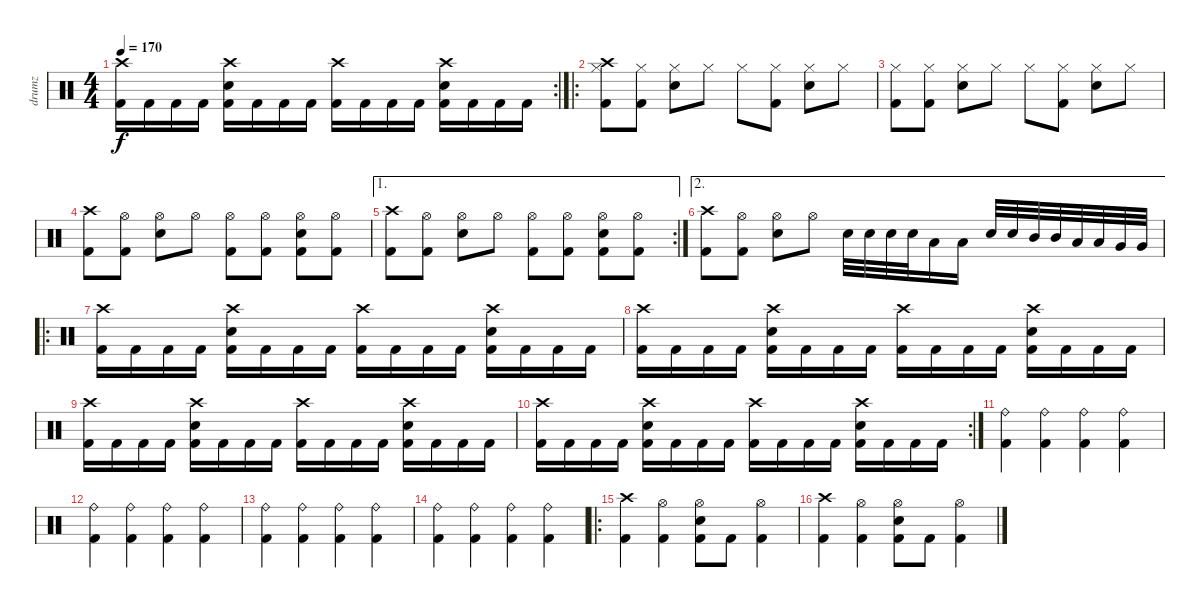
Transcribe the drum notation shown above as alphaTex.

\track ("drumz" "drumz") {instrument percussion}
\staff {score}
\articulation defaults
\rc 2
\ts (4 4)
\tempo 170
\clef neutral
\ks c
("Crash high (hit)" "Kick (hit) 2").16{dy f} "Kick (hit) 2".16 "Kick (hit) 2".16 "Kick (hit) 2".16 ("Crash high (hit)" "Electric Snare (hit)" "Kick (hit) 2").16 "Kick (hit) 2".16 "Kick (hit) 2".16 "Kick (hit) 2".16 ("Crash high (hit)" "Kick (hit) 2").16 "Kick (hit) 2".16 "Kick (hit) 2".16 "Kick (hit) 2".16 ("Crash high (hit)" "Electric Snare (hit)" "Kick (hit) 2").16 "Kick (hit) 2".16 "Kick (hit) 2".16 "Kick (hit) 2".16 |
\ro
("Crash high (hit)" "Hi-Hat (closed)" "Kick (hit) 2").8 ("Hi-Hat (closed)" "Kick (hit) 2").8 ("Hi-Hat (closed)" "Electric Snare (hit)").8 "Hi-Hat (closed)".8 "Hi-Hat (closed)".8 ("Hi-Hat (closed)" "Kick (hit) 2").8 ("Hi-Hat (closed)" "Electric Snare (hit)").8 "Hi-Hat (closed)".8 |
("Hi-Hat (closed)" "Kick (hit) 2").8 ("Hi-Hat (closed)" "Kick (hit) 2").8 ("Hi-Hat (closed)" "Electric Snare (hit)").8 "Hi-Hat (closed)".8 "Hi-Hat (closed)".8 ("Hi-Hat (closed)" "Kick (hit) 2").8 ("Hi-Hat (closed)" "Electric Snare (hit)").8 "Hi-Hat (closed)".8 |
("Crash high (hit)" "Kick (hit) 2").8 ("Hi-Hat (open)" "Kick (hit) 2").8 ("Hi-Hat (open)" "Electric Snare (hit)").8 "Hi-Hat (open)".8 ("Hi-Hat (open)" "Kick (hit) 2").8 ("Hi-Hat (open)" "Kick (hit) 2").8 ("Hi-Hat (open)" "Electric Snare (hit)" "Kick (hit) 2").8 ("Hi-Hat (open)" "Kick (hit) 2").8 |
\ae 1
\rc 2
("Crash high (hit)" "Kick (hit) 2").8 ("Hi-Hat (open)" "Kick (hit) 2").8 ("Hi-Hat (open)" "Electric Snare (hit)").8 "Hi-Hat (open)".8 ("Hi-Hat (open)" "Kick (hit) 2").8 ("Hi-Hat (open)" "Kick (hit) 2").8 ("Hi-Hat (open)" "Electric Snare (hit)" "Kick (hit) 2").8 ("Hi-Hat (open)" "Kick (hit) 2").8 |
\ae 2
("Crash high (hit)" "Kick (hit) 2").8 ("Hi-Hat (open)" "Kick (hit) 2").8 ("Hi-Hat (open)" "Electric Snare (hit)").8 "Hi-Hat (open)".8 "Electric Snare (hit)".32 "Electric Snare (hit)".32 "Electric Snare (hit)".32 "Electric Snare (hit)".32 "Low Tom (hit)".16 "Low Tom (hit)".16 "Electric Snare (hit)".32 "Electric Snare (hit)".32 "Mid Tom (hit)".32 "Mid Tom (hit)".32 "Low Tom (hit)".32 "Low Tom (hit)".32 "Very Low Tom (hit)".32 "Very Low Tom (hit)".32 |
\ro
("Crash high (hit)" "Kick (hit) 2").16 "Kick (hit) 2".16 "Kick (hit) 2".16 "Kick (hit) 2".16 ("Crash high (hit)" "Electric Snare (hit)" "Kick (hit) 2").16 "Kick (hit) 2".16 "Kick (hit) 2".16 "Kick (hit) 2".16 ("Crash high (hit)" "Kick (hit) 2").16 "Kick (hit) 2".16 "Kick (hit) 2".16 "Kick (hit) 2".16 ("Crash high (hit)" "Electric Snare (hit)" "Kick (hit) 2").16 "Kick (hit) 2".16 "Kick (hit) 2".16 "Kick (hit) 2".16 |
("Crash high (hit)" "Kick (hit) 2").16 "Kick (hit) 2".16 "Kick (hit) 2".16 "Kick (hit) 2".16 ("Crash high (hit)" "Electric Snare (hit)" "Kick (hit) 2").16 "Kick (hit) 2".16 "Kick (hit) 2".16 "Kick (hit) 2".16 ("Crash high (hit)" "Kick (hit) 2").16 "Kick (hit) 2".16 "Kick (hit) 2".16 "Kick (hit) 2".16 ("Crash high (hit)" "Electric Snare (hit)" "Kick (hit) 2").16 "Kick (hit) 2".16 "Kick (hit) 2".16 "Kick (hit) 2".16 |
("Crash high (hit)" "Kick (hit) 2").16 "Kick (hit) 2".16 "Kick (hit) 2".16 "Kick (hit) 2".16 ("Crash high (hit)" "Electric Snare (hit)" "Kick (hit) 2").16 "Kick (hit) 2".16 "Kick (hit) 2".16 "Kick (hit) 2".16 ("Crash high (hit)" "Kick (hit) 2").16 "Kick (hit) 2".16 "Kick (hit) 2".16 "Kick (hit) 2".16 ("Crash high (hit)" "Electric Snare (hit)" "Kick (hit) 2").16 "Kick (hit) 2".16 "Kick (hit) 2".16 "Kick (hit) 2".16 |
\rc 2
("Crash high (hit)" "Kick (hit) 2").16 "Kick (hit) 2".16 "Kick (hit) 2".16 "Kick (hit) 2".16 ("Crash high (hit)" "Electric Snare (hit)" "Kick (hit) 2").16 "Kick (hit) 2".16 "Kick (hit) 2".16 "Kick (hit) 2".16 ("Crash high (hit)" "Kick (hit) 2").16 "Kick (hit) 2".16 "Kick (hit) 2".16 "Kick (hit) 2".16 ("Crash high (hit)" "Electric Snare (hit)" "Kick (hit) 2").16 "Kick (hit) 2".16 "Kick (hit) 2".16 "Kick (hit) 2".16 |
("Ride (bell)" "Kick (hit) 2").4 ("Ride (bell)" "Kick (hit) 2").4 ("Ride (bell)" "Kick (hit) 2").4 ("Ride (bell)" "Kick (hit) 2").4 |
("Ride (bell)" "Kick (hit) 2").4 ("Ride (bell)" "Kick (hit) 2").4 ("Ride (bell)" "Kick (hit) 2").4 ("Ride (bell)" "Kick (hit) 2").4 |
("Ride (bell)" "Kick (hit) 2").4 ("Ride (bell)" "Kick (hit) 2").4 ("Ride (bell)" "Kick (hit) 2").4 ("Ride (bell)" "Kick (hit) 2").4 |
("Ride (bell)" "Kick (hit) 2").4 ("Ride (bell)" "Kick (hit) 2").4 ("Ride (bell)" "Kick (hit) 2").4 ("Ride (bell)" "Kick (hit) 2").4 |
\ro
("Crash high (hit)" "Kick (hit) 2").4 ("Hi-Hat (open)" "Kick (hit) 2").4 ("Hi-Hat (open)" "Electric Snare (hit)" "Kick (hit) 2").8 "Kick (hit) 2".8 ("Hi-Hat (open)" "Kick (hit) 2").4 |
("Crash high (hit)" "Kick (hit) 2").4 ("Hi-Hat (open)" "Kick (hit) 2").4 ("Hi-Hat (open)" "Electric Snare (hit)" "Kick (hit) 2").8 "Kick (hit) 2".8 ("Hi-Hat (open)" "Kick (hit) 2").4
